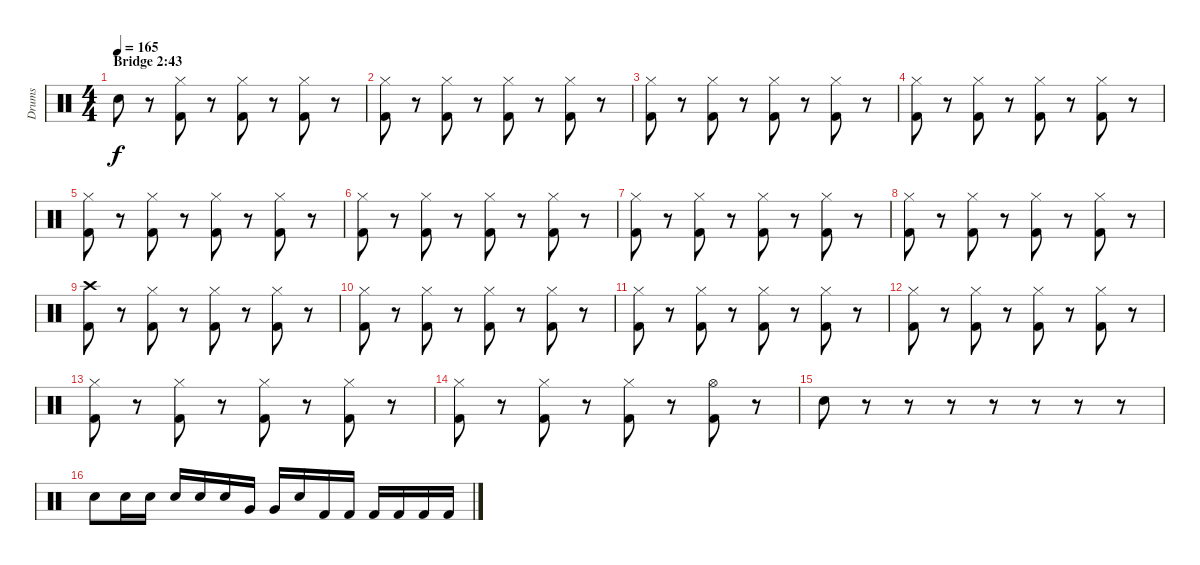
\track ("Drums" "Drums") {instrument percussion}
\staff {score}
\articulation defaults
\ts (4 4)
\section ("" "Bridge 2:43")
\tempo 165
\clef neutral
\ks c "Electric Snare (hit)".8{dy f}
r.8 ("Hi-Hat (closed)" "Kick (hit) 2").8 r.8 ("Hi-Hat (closed)" "Kick (hit) 2").8 r.8 ("Hi-Hat (closed)" "Kick (hit) 2").8 r.8 |
("Hi-Hat (closed)" "Kick (hit) 2").8 r.8 ("Hi-Hat (closed)" "Kick (hit) 2").8 r.8 ("Hi-Hat (closed)" "Kick (hit) 2").8 r.8 ("Hi-Hat (closed)" "Kick (hit) 2").8 r.8 |
("Hi-Hat (closed)" "Kick (hit) 2").8 r.8 ("Hi-Hat (closed)" "Kick (hit) 2").8 r.8 ("Hi-Hat (closed)" "Kick (hit) 2").8 r.8 ("Hi-Hat (closed)" "Kick (hit) 2").8 r.8 |
("Hi-Hat (closed)" "Kick (hit) 2").8 r.8 ("Hi-Hat (closed)" "Kick (hit) 2").8 r.8 ("Hi-Hat (closed)" "Kick (hit) 2").8 r.8 ("Hi-Hat (closed)" "Kick (hit) 2").8 r.8 |
("Hi-Hat (closed)" "Kick (hit) 2").8 r.8 ("Hi-Hat (closed)" "Kick (hit) 2").8 r.8 ("Hi-Hat (closed)" "Kick (hit) 2").8 r.8 ("Hi-Hat (closed)" "Kick (hit) 2").8 r.8 |
("Hi-Hat (closed)" "Kick (hit) 2").8 r.8 ("Hi-Hat (closed)" "Kick (hit) 2").8 r.8 ("Hi-Hat (closed)" "Kick (hit) 2").8 r.8 ("Hi-Hat (closed)" "Kick (hit) 2").8 r.8 |
("Hi-Hat (closed)" "Kick (hit) 2").8 r.8 ("Hi-Hat (closed)" "Kick (hit) 2").8 r.8 ("Hi-Hat (closed)" "Kick (hit) 2").8 r.8 ("Hi-Hat (closed)" "Kick (hit) 2").8 r.8 |
("Hi-Hat (closed)" "Kick (hit) 2").8 r.8 ("Hi-Hat (closed)" "Kick (hit) 2").8 r.8 ("Hi-Hat (closed)" "Kick (hit) 2").8 r.8 ("Hi-Hat (closed)" "Kick (hit) 2").8 r.8 |
("Crash high (hit)" "Kick (hit) 2").8 r.8 ("Hi-Hat (closed)" "Kick (hit) 2").8 r.8 ("Hi-Hat (closed)" "Kick (hit) 2").8 r.8 ("Hi-Hat (closed)" "Kick (hit) 2").8 r.8 |
("Hi-Hat (closed)" "Kick (hit) 2").8 r.8 ("Hi-Hat (closed)" "Kick (hit) 2").8 r.8 ("Hi-Hat (closed)" "Kick (hit) 2").8 r.8 ("Hi-Hat (closed)" "Kick (hit) 2").8 r.8 |
("Hi-Hat (closed)" "Kick (hit) 2").8 r.8 ("Hi-Hat (closed)" "Kick (hit) 2").8 r.8 ("Hi-Hat (closed)" "Kick (hit) 2").8 r.8 ("Hi-Hat (closed)" "Kick (hit) 2").8 r.8 |
("Hi-Hat (closed)" "Kick (hit) 2").8 r.8 ("Hi-Hat (closed)" "Kick (hit) 2").8 r.8 ("Hi-Hat (closed)" "Kick (hit) 2").8 r.8 ("Hi-Hat (closed)" "Kick (hit) 2").8 r.8 |
("Hi-Hat (closed)" "Kick (hit) 2").8 r.8 ("Hi-Hat (closed)" "Kick (hit) 2").8 r.8 ("Hi-Hat (closed)" "Kick (hit) 2").8 r.8 ("Hi-Hat (closed)" "Kick (hit) 2").8 r.8 |
("Hi-Hat (closed)" "Kick (hit) 2").8 r.8 ("Hi-Hat (closed)" "Kick (hit) 2").8 r.8 ("Hi-Hat (closed)" "Kick (hit) 2").8 r.8 ("Hi-Hat (open)" "Kick (hit) 2").8 r.8 |
"Electric Snare (hit)".8 r.8 r.8 r.8 r.8 r.8 r.8 r.8 |
"Electric Snare (hit)".8 "Electric Snare (hit)".16 "Electric Snare (hit)".16 "Electric Snare (hit)".16 "Electric Snare (hit)".16 "Electric Snare (hit)".16 "Very Low Tom (hit)".16 "Very Low Tom (hit)".16 "Electric Snare (hit)".16 "Kick (hit) 2".16 "Kick (hit) 2".16 "Kick (hit) 2".16 "Kick (hit) 2".16 "Kick (hit) 2".16 "Kick (hit) 2".16
